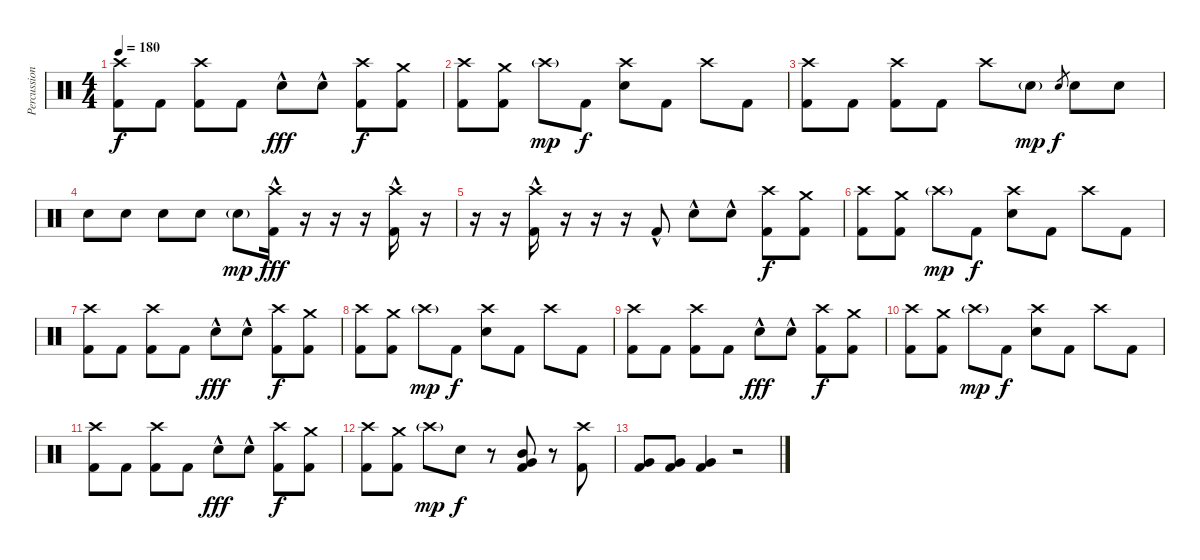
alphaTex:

\track ("Percussion" "Percussion") {instrument percussion}
\staff {score}
\articulation defaults
\ts (4 4)
\tempo 180
\clef neutral
\ks c
("Crash high (hit)" "Kick (hit) 2").8{dy f} "Kick (hit) 2".8 ("Crash high (hit)" "Kick (hit) 2").8 "Kick (hit) 2".8 "Electric Snare (hit)"{hac}.8{dy fff} "Electric Snare (hit)"{hac}.8 ("Crash high (hit)" "Kick (hit) 2").8{dy f} ("Crash medium (hit)" "Kick (hit) 2").8 |
("Crash high (hit)" "Kick (hit) 2").8 ("Crash medium (hit)" "Kick (hit) 2").8 "Crash high (hit)"{g}.8{dy mp} "Kick (hit) 2".8{dy f} ("Crash high (hit)" "Electric Snare (hit)").8 "Kick (hit) 2".8 "Crash high (hit)".8 "Kick (hit) 2".8 |
("Crash high (hit)" "Kick (hit) 2").8 "Kick (hit) 2".8 ("Crash high (hit)" "Kick (hit) 2").8 "Kick (hit) 2".8 "Crash high (hit)".8 "Electric Snare (hit)"{g}.8{dy mp} "Electric Snare (hit)".8{gr dy f} "Electric Snare (hit)".8 "Electric Snare (hit)".8 |
"Electric Snare (hit)".8 "Electric Snare (hit)".8 "Electric Snare (hit)".8 "Electric Snare (hit)".8 "Electric Snare (hit)"{g}.8{dy mp} ("Crash high (hit)"{hac} "Kick (hit) 2"{hac}).16{dy fff volume 11} r.16{volume 0} r.16 r.16 ("Crash high (hit)"{hac} "Kick (hit) 2"{hac}).16{volume 11} r.16{volume 0} |
r.16 r.16 ("Crash high (hit)"{hac} "Kick (hit) 2"{hac}).16{volume 11} r.16{volume 0} r.16 r.16 "Kick (hit) 2"{hac}.8 "Electric Snare (hit)"{hac}.8{volume 11} "Electric Snare (hit)"{hac}.8 ("Crash high (hit)" "Kick (hit) 2").8{dy f} ("Crash medium (hit)" "Kick (hit) 2").8 |
("Crash high (hit)" "Kick (hit) 2").8 ("Crash medium (hit)" "Kick (hit) 2").8 "Crash high (hit)"{g}.8{dy mp} "Kick (hit) 2".8{dy f} ("Crash high (hit)" "Electric Snare (hit)").8 "Kick (hit) 2".8 "Crash high (hit)".8 "Kick (hit) 2".8 |
("Crash high (hit)" "Kick (hit) 2").8 "Kick (hit) 2".8 ("Crash high (hit)" "Kick (hit) 2").8 "Kick (hit) 2".8 "Electric Snare (hit)"{hac}.8{dy fff} "Electric Snare (hit)"{hac}.8 ("Crash high (hit)" "Kick (hit) 2").8{dy f} ("Crash medium (hit)" "Kick (hit) 2").8 |
("Crash high (hit)" "Kick (hit) 2").8 ("Crash medium (hit)" "Kick (hit) 2").8 "Crash high (hit)"{g}.8{dy mp} "Kick (hit) 2".8{dy f} ("Crash high (hit)" "Electric Snare (hit)").8 "Kick (hit) 2".8 "Crash high (hit)".8 "Kick (hit) 2".8 |
("Crash high (hit)" "Kick (hit) 2").8 "Kick (hit) 2".8 ("Crash high (hit)" "Kick (hit) 2").8 "Kick (hit) 2".8 "Electric Snare (hit)"{hac}.8{dy fff} "Electric Snare (hit)"{hac}.8 ("Crash high (hit)" "Kick (hit) 2").8{dy f} ("Crash medium (hit)" "Kick (hit) 2").8 |
("Crash high (hit)" "Kick (hit) 2").8 ("Crash medium (hit)" "Kick (hit) 2").8 "Crash high (hit)"{g}.8{dy mp} "Kick (hit) 2".8{dy f} ("Crash high (hit)" "Electric Snare (hit)").8 "Kick (hit) 2".8 "Crash high (hit)".8 "Kick (hit) 2".8 |
("Crash high (hit)" "Kick (hit) 2").8 "Kick (hit) 2".8 ("Crash high (hit)" "Kick (hit) 2").8 "Kick (hit) 2".8 "Electric Snare (hit)"{hac}.8{dy fff} "Electric Snare (hit)"{hac}.8 ("Crash high (hit)" "Kick (hit) 2").8{dy f} ("Crash medium (hit)" "Kick (hit) 2").8 |
("Crash high (hit)" "Kick (hit) 2").8 ("Crash medium (hit)" "Kick (hit) 2").8 "Crash high (hit)"{g}.8{dy mp} "Electric Snare (hit)".8{dy f} r.8 ("Very Low Tom (hit)" "Mid Tom (hit)" "Kick (hit) 2").8 r.8 ("Crash high (hit)" "Kick (hit) 2").8 |
("Very Low Tom (hit)" "Kick (hit) 2").8 ("Very Low Tom (hit)" "Kick (hit) 2").8 ("Very Low Tom (hit)" "Kick (hit) 2").4 r.2
